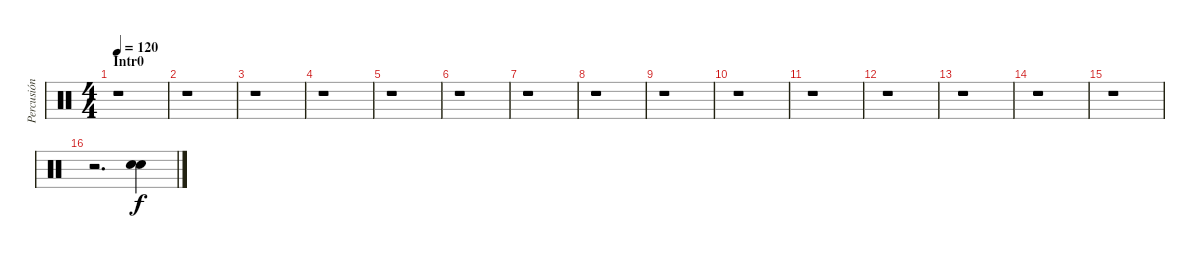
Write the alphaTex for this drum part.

\track ("Percusión" "Percusión") {instrument percussion}
\staff {score}
\articulation defaults
\ts (4 4)
\section ("" "Intr0")
\tempo 120
\clef neutral
\ks c
r.1{dy f} |
r.1 |
r.1 |
r.1 |
r.1 |
r.1 |
r.1 |
r.1 |
r.1 |
r.1 |
r.1 |
r.1 |
r.1 |
r.1 |
r.1 |
r.2{d} ("Electric Snare (hit)" "Electric Snare (hit)").4
